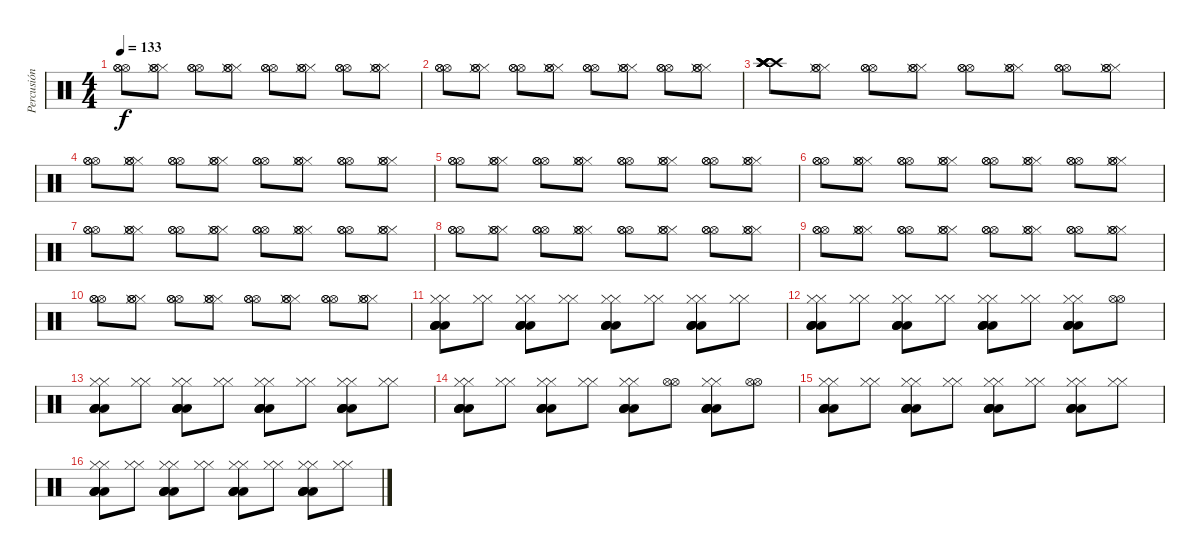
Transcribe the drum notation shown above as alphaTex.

\track ("Percusión" "Percusión") {instrument percussion}
\staff {score}
\articulation defaults
\ts (4 4)
\tempo 133
\clef neutral
\ks c
("Hi-Hat (open)" "Hi-Hat (open)" "Hi-Hat (open)").8{dy f} ("Hi-Hat (closed)" "Hi-Hat (open)" "Hi-Hat (closed)" "Hi-Hat (open)").8 ("Hi-Hat (open)" "Hi-Hat (open)" "Hi-Hat (open)").8 ("Hi-Hat (closed)" "Hi-Hat (open)" "Hi-Hat (closed)" "Hi-Hat (open)").8 ("Hi-Hat (open)" "Hi-Hat (open)" "Hi-Hat (open)").8 ("Hi-Hat (closed)" "Hi-Hat (open)" "Hi-Hat (closed)" "Hi-Hat (open)").8 ("Hi-Hat (open)" "Hi-Hat (open)" "Hi-Hat (open)").8 ("Hi-Hat (closed)" "Hi-Hat (open)" "Hi-Hat (closed)" "Hi-Hat (open)").8 |
("Hi-Hat (open)" "Hi-Hat (open)" "Hi-Hat (open)").8 ("Hi-Hat (closed)" "Hi-Hat (open)" "Hi-Hat (closed)" "Hi-Hat (open)").8 ("Hi-Hat (open)" "Hi-Hat (open)" "Hi-Hat (open)").8 ("Hi-Hat (closed)" "Hi-Hat (open)" "Hi-Hat (closed)" "Hi-Hat (open)").8 ("Hi-Hat (open)" "Hi-Hat (open)" "Hi-Hat (open)").8 ("Hi-Hat (closed)" "Hi-Hat (open)" "Hi-Hat (closed)" "Hi-Hat (open)").8 ("Hi-Hat (open)" "Hi-Hat (open)" "Hi-Hat (open)").8 ("Hi-Hat (closed)" "Hi-Hat (open)" "Hi-Hat (closed)" "Hi-Hat (open)").8 |
("Crash high (hit)" "Crash high (hit)" "Crash high (hit)" "Crash high (hit)" "Crash high (hit)" "Crash high (hit)").8 ("Hi-Hat (closed)" "Hi-Hat (open)" "Hi-Hat (closed)" "Hi-Hat (open)").8 ("Hi-Hat (open)" "Hi-Hat (open)" "Hi-Hat (open)").8 ("Hi-Hat (closed)" "Hi-Hat (open)" "Hi-Hat (closed)" "Hi-Hat (open)").8 ("Hi-Hat (open)" "Hi-Hat (open)" "Hi-Hat (open)").8 ("Hi-Hat (closed)" "Hi-Hat (open)" "Hi-Hat (closed)" "Hi-Hat (open)").8 ("Hi-Hat (open)" "Hi-Hat (open)" "Hi-Hat (open)").8 ("Hi-Hat (closed)" "Hi-Hat (open)" "Hi-Hat (closed)" "Hi-Hat (open)").8 |
("Hi-Hat (open)" "Hi-Hat (open)" "Hi-Hat (open)").8 ("Hi-Hat (closed)" "Hi-Hat (open)" "Hi-Hat (closed)" "Hi-Hat (open)").8 ("Hi-Hat (open)" "Hi-Hat (open)" "Hi-Hat (open)").8 ("Hi-Hat (closed)" "Hi-Hat (open)" "Hi-Hat (closed)" "Hi-Hat (open)").8 ("Hi-Hat (open)" "Hi-Hat (open)" "Hi-Hat (open)").8 ("Hi-Hat (closed)" "Hi-Hat (open)" "Hi-Hat (closed)" "Hi-Hat (open)").8 ("Hi-Hat (open)" "Hi-Hat (open)" "Hi-Hat (open)").8 ("Hi-Hat (closed)" "Hi-Hat (open)" "Hi-Hat (closed)" "Hi-Hat (open)").8 |
("Hi-Hat (open)" "Hi-Hat (open)" "Hi-Hat (open)").8 ("Hi-Hat (closed)" "Hi-Hat (open)" "Hi-Hat (closed)" "Hi-Hat (open)").8 ("Hi-Hat (open)" "Hi-Hat (open)" "Hi-Hat (open)").8 ("Hi-Hat (closed)" "Hi-Hat (open)" "Hi-Hat (closed)" "Hi-Hat (open)").8 ("Hi-Hat (open)" "Hi-Hat (open)" "Hi-Hat (open)").8 ("Hi-Hat (closed)" "Hi-Hat (open)" "Hi-Hat (closed)" "Hi-Hat (open)").8 ("Hi-Hat (open)" "Hi-Hat (open)" "Hi-Hat (open)").8 ("Hi-Hat (closed)" "Hi-Hat (open)" "Hi-Hat (closed)" "Hi-Hat (open)").8 |
("Hi-Hat (open)" "Hi-Hat (open)" "Hi-Hat (open)").8 ("Hi-Hat (closed)" "Hi-Hat (open)" "Hi-Hat (closed)" "Hi-Hat (open)").8 ("Hi-Hat (open)" "Hi-Hat (open)" "Hi-Hat (open)").8 ("Hi-Hat (closed)" "Hi-Hat (open)" "Hi-Hat (closed)" "Hi-Hat (open)").8 ("Hi-Hat (open)" "Hi-Hat (open)" "Hi-Hat (open)").8 ("Hi-Hat (closed)" "Hi-Hat (open)" "Hi-Hat (closed)" "Hi-Hat (open)").8 ("Hi-Hat (open)" "Hi-Hat (open)" "Hi-Hat (open)").8 ("Hi-Hat (closed)" "Hi-Hat (open)" "Hi-Hat (closed)" "Hi-Hat (open)").8 |
("Hi-Hat (open)" "Hi-Hat (open)" "Hi-Hat (open)").8 ("Hi-Hat (closed)" "Hi-Hat (open)" "Hi-Hat (closed)" "Hi-Hat (open)").8 ("Hi-Hat (open)" "Hi-Hat (open)" "Hi-Hat (open)").8 ("Hi-Hat (closed)" "Hi-Hat (open)" "Hi-Hat (closed)" "Hi-Hat (open)").8 ("Hi-Hat (open)" "Hi-Hat (open)" "Hi-Hat (open)").8 ("Hi-Hat (closed)" "Hi-Hat (open)" "Hi-Hat (closed)" "Hi-Hat (open)").8 ("Hi-Hat (open)" "Hi-Hat (open)" "Hi-Hat (open)").8 ("Hi-Hat (closed)" "Hi-Hat (open)" "Hi-Hat (closed)" "Hi-Hat (open)").8 |
("Hi-Hat (open)" "Hi-Hat (open)" "Hi-Hat (open)").8 ("Hi-Hat (closed)" "Hi-Hat (open)" "Hi-Hat (closed)" "Hi-Hat (open)").8 ("Hi-Hat (open)" "Hi-Hat (open)" "Hi-Hat (open)").8 ("Hi-Hat (closed)" "Hi-Hat (open)" "Hi-Hat (closed)" "Hi-Hat (open)").8 ("Hi-Hat (open)" "Hi-Hat (open)" "Hi-Hat (open)").8 ("Hi-Hat (closed)" "Hi-Hat (open)" "Hi-Hat (closed)" "Hi-Hat (open)").8 ("Hi-Hat (open)" "Hi-Hat (open)" "Hi-Hat (open)").8 ("Hi-Hat (closed)" "Hi-Hat (open)" "Hi-Hat (closed)" "Hi-Hat (open)").8 |
("Hi-Hat (open)" "Hi-Hat (open)" "Hi-Hat (open)").8 ("Hi-Hat (closed)" "Hi-Hat (open)" "Hi-Hat (closed)" "Hi-Hat (open)").8 ("Hi-Hat (open)" "Hi-Hat (open)" "Hi-Hat (open)").8 ("Hi-Hat (closed)" "Hi-Hat (open)" "Hi-Hat (closed)" "Hi-Hat (open)").8 ("Hi-Hat (open)" "Hi-Hat (open)" "Hi-Hat (open)").8 ("Hi-Hat (closed)" "Hi-Hat (open)" "Hi-Hat (closed)" "Hi-Hat (open)").8 ("Hi-Hat (open)" "Hi-Hat (open)" "Hi-Hat (open)").8 ("Hi-Hat (closed)" "Hi-Hat (open)" "Hi-Hat (closed)" "Hi-Hat (open)").8 |
("Hi-Hat (open)" "Hi-Hat (open)" "Hi-Hat (open)").8 ("Hi-Hat (closed)" "Hi-Hat (open)" "Hi-Hat (closed)" "Hi-Hat (open)").8 ("Hi-Hat (open)" "Hi-Hat (open)" "Hi-Hat (open)").8 ("Hi-Hat (closed)" "Hi-Hat (open)" "Hi-Hat (closed)" "Hi-Hat (open)").8 ("Hi-Hat (open)" "Hi-Hat (open)" "Hi-Hat (open)").8 ("Hi-Hat (closed)" "Hi-Hat (open)" "Hi-Hat (closed)" "Hi-Hat (open)").8 ("Hi-Hat (open)" "Hi-Hat (open)" "Hi-Hat (open)").8 ("Hi-Hat (closed)" "Hi-Hat (open)" "Hi-Hat (closed)" "Hi-Hat (open)").8 |
("Hi-Hat (closed)" "Hi-Hat (closed)" "Low Tom (hit)" "Low Tom (hit)" "Low Tom (hit)" "Low Tom (hit)").8 ("Hi-Hat (closed)" "Hi-Hat (closed)").8 ("Hi-Hat (closed)" "Hi-Hat (closed)" "Low Tom (hit)" "Low Tom (hit)" "Low Tom (hit)" "Low Tom (hit)").8 ("Hi-Hat (closed)" "Hi-Hat (closed)").8 ("Hi-Hat (closed)" "Hi-Hat (closed)" "Low Tom (hit)" "Low Tom (hit)" "Low Tom (hit)" "Low Tom (hit)").8 ("Hi-Hat (closed)" "Hi-Hat (closed)").8 ("Hi-Hat (closed)" "Hi-Hat (closed)" "Low Tom (hit)" "Low Tom (hit)" "Low Tom (hit)" "Low Tom (hit)").8 ("Hi-Hat (closed)" "Hi-Hat (closed)").8 |
("Hi-Hat (closed)" "Hi-Hat (closed)" "Low Tom (hit)" "Low Tom (hit)" "Low Tom (hit)" "Low Tom (hit)").8 ("Hi-Hat (closed)" "Hi-Hat (closed)").8 ("Hi-Hat (closed)" "Hi-Hat (closed)" "Low Tom (hit)" "Low Tom (hit)" "Low Tom (hit)" "Low Tom (hit)").8 ("Hi-Hat (closed)" "Hi-Hat (closed)").8 ("Hi-Hat (closed)" "Hi-Hat (closed)" "Low Tom (hit)" "Low Tom (hit)" "Low Tom (hit)" "Low Tom (hit)").8 ("Hi-Hat (closed)" "Hi-Hat (closed)").8 ("Hi-Hat (closed)" "Hi-Hat (closed)" "Low Tom (hit)" "Low Tom (hit)" "Low Tom (hit)" "Low Tom (hit)").8 ("Hi-Hat (open)" "Hi-Hat (open)").8 |
("Hi-Hat (closed)" "Hi-Hat (closed)" "Low Tom (hit)" "Low Tom (hit)" "Low Tom (hit)" "Low Tom (hit)").8 ("Hi-Hat (closed)" "Hi-Hat (closed)").8 ("Hi-Hat (closed)" "Hi-Hat (closed)" "Low Tom (hit)" "Low Tom (hit)" "Low Tom (hit)" "Low Tom (hit)").8 ("Hi-Hat (closed)" "Hi-Hat (closed)").8 ("Hi-Hat (closed)" "Hi-Hat (closed)" "Low Tom (hit)" "Low Tom (hit)" "Low Tom (hit)" "Low Tom (hit)").8 ("Hi-Hat (closed)" "Hi-Hat (closed)").8 ("Hi-Hat (closed)" "Hi-Hat (closed)" "Low Tom (hit)" "Low Tom (hit)" "Low Tom (hit)" "Low Tom (hit)").8 ("Hi-Hat (closed)" "Hi-Hat (closed)").8 |
("Hi-Hat (closed)" "Hi-Hat (closed)" "Low Tom (hit)" "Low Tom (hit)" "Low Tom (hit)" "Low Tom (hit)").8 ("Hi-Hat (closed)" "Hi-Hat (closed)").8 ("Hi-Hat (closed)" "Hi-Hat (closed)" "Low Tom (hit)" "Low Tom (hit)" "Low Tom (hit)" "Low Tom (hit)").8 ("Hi-Hat (closed)" "Hi-Hat (closed)").8 ("Hi-Hat (closed)" "Hi-Hat (closed)" "Low Tom (hit)" "Low Tom (hit)" "Low Tom (hit)" "Low Tom (hit)").8 ("Hi-Hat (open)" "Hi-Hat (open)").8 ("Hi-Hat (closed)" "Hi-Hat (closed)" "Low Tom (hit)" "Low Tom (hit)" "Low Tom (hit)" "Low Tom (hit)").8 ("Hi-Hat (open)" "Hi-Hat (open)").8 |
("Hi-Hat (closed)" "Hi-Hat (closed)" "Low Tom (hit)" "Low Tom (hit)" "Low Tom (hit)" "Low Tom (hit)").8 ("Hi-Hat (closed)" "Hi-Hat (closed)").8 ("Hi-Hat (closed)" "Hi-Hat (closed)" "Low Tom (hit)" "Low Tom (hit)" "Low Tom (hit)" "Low Tom (hit)").8 ("Hi-Hat (closed)" "Hi-Hat (closed)").8 ("Hi-Hat (closed)" "Hi-Hat (closed)" "Low Tom (hit)" "Low Tom (hit)" "Low Tom (hit)" "Low Tom (hit)").8 ("Hi-Hat (closed)" "Hi-Hat (closed)").8 ("Hi-Hat (closed)" "Hi-Hat (closed)" "Low Tom (hit)" "Low Tom (hit)" "Low Tom (hit)" "Low Tom (hit)").8 ("Hi-Hat (closed)" "Hi-Hat (closed)").8 |
("Hi-Hat (closed)" "Hi-Hat (closed)" "Low Tom (hit)" "Low Tom (hit)" "Low Tom (hit)" "Low Tom (hit)").8 ("Hi-Hat (closed)" "Hi-Hat (closed)").8 ("Hi-Hat (closed)" "Hi-Hat (closed)" "Low Tom (hit)" "Low Tom (hit)" "Low Tom (hit)" "Low Tom (hit)").8 ("Hi-Hat (closed)" "Hi-Hat (closed)").8 ("Hi-Hat (closed)" "Hi-Hat (closed)" "Low Tom (hit)" "Low Tom (hit)" "Low Tom (hit)" "Low Tom (hit)").8 ("Hi-Hat (closed)" "Hi-Hat (closed)").8 ("Hi-Hat (closed)" "Hi-Hat (closed)" "Low Tom (hit)" "Low Tom (hit)" "Low Tom (hit)" "Low Tom (hit)").8 ("Hi-Hat (closed)" "Hi-Hat (closed)").8
